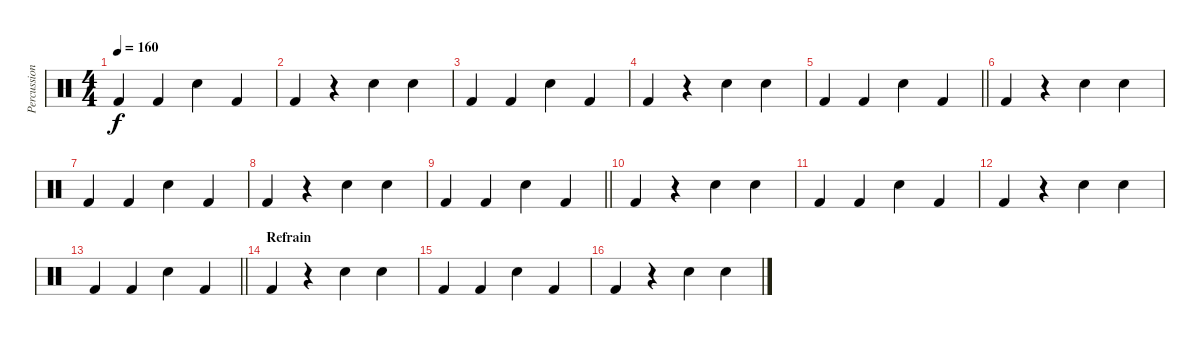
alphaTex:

\track ("Percussion" "Percussion") {instrument percussion}
\staff {score}
\articulation defaults
\ts (4 4)
\tempo 160
\clef neutral
\ks c "Kick (hit) 2".4{dy f} "Kick (hit) 2".4 "Electric Snare (hit)".4 "Kick (hit) 2".4
|
"Kick (hit) 2".4 r.4 "Electric Snare (hit)".4 "Electric Snare (hit)".4 |
"Kick (hit) 2".4 "Kick (hit) 2".4 "Electric Snare (hit)".4 "Kick (hit) 2".4 |
"Kick (hit) 2".4 r.4 "Electric Snare (hit)".4 "Electric Snare (hit)".4 |
\barLineRight lightlight "Kick (hit) 2".4 "Kick (hit) 2".4 "Electric Snare (hit)".4 "Kick (hit) 2".4
|
"Kick (hit) 2".4 r.4 "Electric Snare (hit)".4 "Electric Snare (hit)".4 |
"Kick (hit) 2".4 "Kick (hit) 2".4 "Electric Snare (hit)".4 "Kick (hit) 2".4 |
"Kick (hit) 2".4 r.4 "Electric Snare (hit)".4 "Electric Snare (hit)".4 |
\barLineRight lightlight "Kick (hit) 2".4 "Kick (hit) 2".4 "Electric Snare (hit)".4 "Kick (hit) 2".4
|
\section ("" "")
"Kick (hit) 2".4 r.4 "Electric Snare (hit)".4 "Electric Snare (hit)".4 |
"Kick (hit) 2".4 "Kick (hit) 2".4 "Electric Snare (hit)".4 "Kick (hit) 2".4 |
"Kick (hit) 2".4 r.4 "Electric Snare (hit)".4 "Electric Snare (hit)".4 |
\barLineRight lightlight "Kick (hit) 2".4 "Kick (hit) 2".4 "Electric Snare (hit)".4 "Kick (hit) 2".4
|
\section ("" "Refrain")
"Kick (hit) 2".4 r.4 "Electric Snare (hit)".4 "Electric Snare (hit)".4 |
"Kick (hit) 2".4 "Kick (hit) 2".4 "Electric Snare (hit)".4 "Kick (hit) 2".4 |
"Kick (hit) 2".4 r.4 "Electric Snare (hit)".4 "Electric Snare (hit)".4
